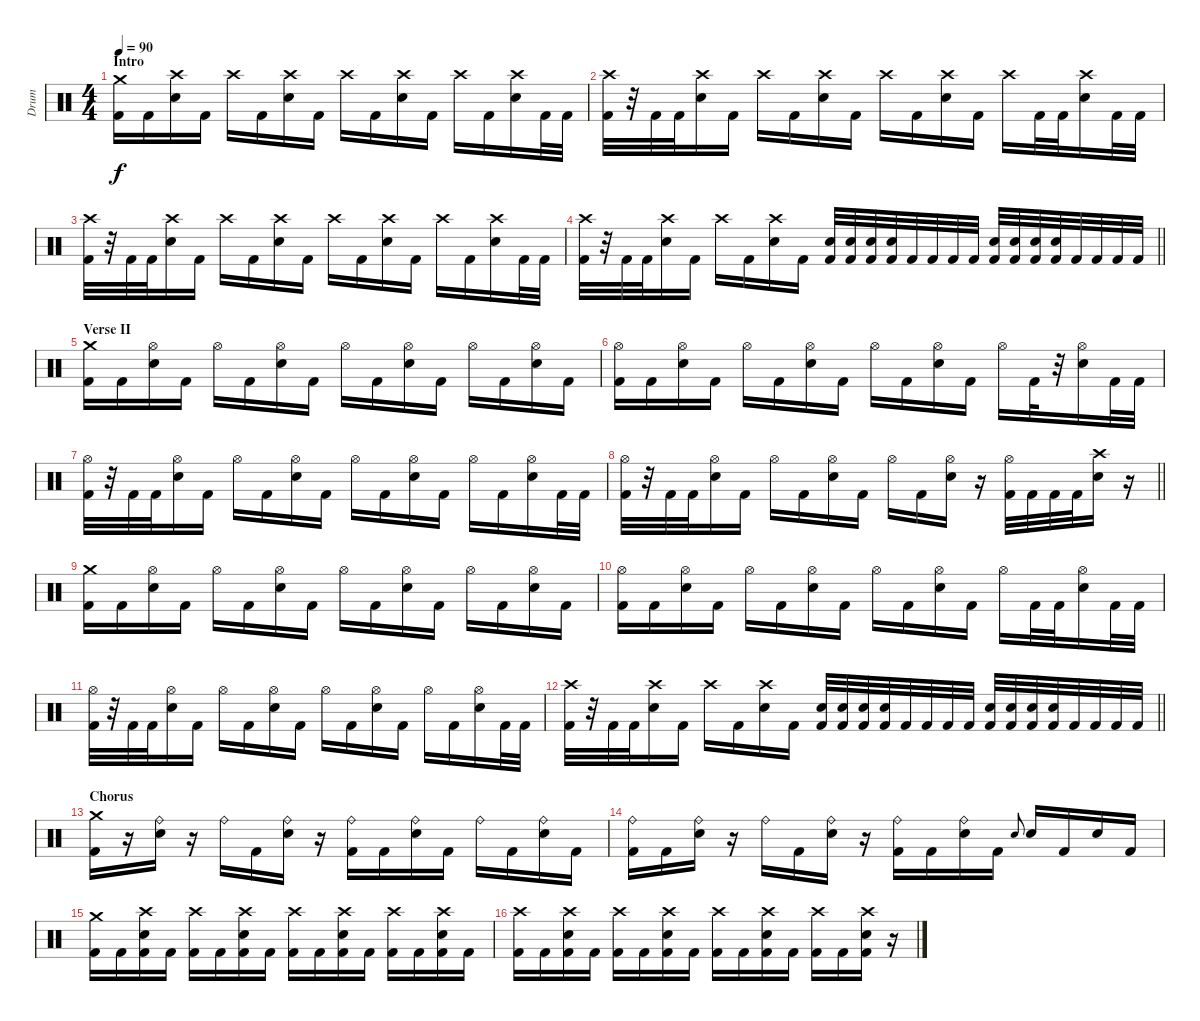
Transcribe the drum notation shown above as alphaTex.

\track ("Drum" "Drum") {instrument percussion}
\staff {score}
\articulation defaults
\ts (4 4)
\section ("" "Intro")
\tempo 90
\clef neutral
\ks c
("Crash medium (hit)" "Kick (hit) 2").16{dy f} "Kick (hit) 2".16 ("Crash high (hit)" "Electric Snare (hit)").16 "Kick (hit) 2".16 "Crash high (hit)".16 "Kick (hit) 2".16 ("Crash high (hit)" "Electric Snare (hit)").16 "Kick (hit) 2".16 "Crash high (hit)".16 "Kick (hit) 2".16 ("Crash high (hit)" "Electric Snare (hit)").16 "Kick (hit) 2".16 "Crash high (hit)".16 "Kick (hit) 2".16 ("Crash high (hit)" "Electric Snare (hit)").16 "Kick (hit) 2".32 "Kick (hit) 2".32 |
("Crash high (hit)" "Kick (hit) 2").32 r.32 "Kick (hit) 2".32 "Kick (hit) 2".32 ("Crash high (hit)" "Electric Snare (hit)").16 "Kick (hit) 2".16 "Crash high (hit)".16 "Kick (hit) 2".16 ("Crash high (hit)" "Electric Snare (hit)").16 "Kick (hit) 2".16 "Crash high (hit)".16 "Kick (hit) 2".16 ("Crash high (hit)" "Electric Snare (hit)").16 "Kick (hit) 2".16 "Crash high (hit)".16 "Kick (hit) 2".32 "Kick (hit) 2".32 ("Crash high (hit)" "Electric Snare (hit)").16 "Kick (hit) 2".32 "Kick (hit) 2".32 |
("Crash high (hit)" "Kick (hit) 2").32 r.32 "Kick (hit) 2".32 "Kick (hit) 2".32 ("Crash high (hit)" "Electric Snare (hit)").16 "Kick (hit) 2".16 "Crash high (hit)".16 "Kick (hit) 2".16 ("Crash high (hit)" "Electric Snare (hit)").16 "Kick (hit) 2".16 "Crash high (hit)".16 "Kick (hit) 2".16 ("Crash high (hit)" "Electric Snare (hit)").16 "Kick (hit) 2".16 "Crash high (hit)".16 "Kick (hit) 2".16 ("Crash high (hit)" "Electric Snare (hit)").16 "Kick (hit) 2".32 "Kick (hit) 2".32 |
\barLineRight lightlight
("Crash high (hit)" "Kick (hit) 2").32 r.32 "Kick (hit) 2".32 "Kick (hit) 2".32 ("Crash high (hit)" "Electric Snare (hit)").16 "Kick (hit) 2".16 "Crash high (hit)".16 "Kick (hit) 2".16 ("Crash high (hit)" "Electric Snare (hit)").16 "Kick (hit) 2".16 ("Electric Snare (hit)" "Kick (hit) 2").32 ("Electric Snare (hit)" "Kick (hit) 2").32 ("Electric Snare (hit)" "Kick (hit) 2").32 ("Electric Snare (hit)" "Kick (hit) 2").32 "Kick (hit) 2".32 "Kick (hit) 2".32 "Kick (hit) 2".32 "Kick (hit) 2".32 ("Electric Snare (hit)" "Kick (hit) 2").32 ("Electric Snare (hit)" "Kick (hit) 2").32 ("Electric Snare (hit)" "Kick (hit) 2").32 ("Electric Snare (hit)" "Kick (hit) 2").32 "Kick (hit) 2".32 "Kick (hit) 2".32 "Kick (hit) 2".32 "Kick (hit) 2".32 |
\section ("" "Verse II")
("Crash medium (hit)" "Kick (hit) 2").16 "Kick (hit) 2".16 ("Hi-Hat (open)" "Electric Snare (hit)").16 "Kick (hit) 2".16 "Hi-Hat (open)".16 "Kick (hit) 2".16 ("Hi-Hat (open)" "Electric Snare (hit)").16 "Kick (hit) 2".16 "Hi-Hat (open)".16 "Kick (hit) 2".16 ("Hi-Hat (open)" "Electric Snare (hit)").16 "Kick (hit) 2".16 "Hi-Hat (open)".16 "Kick (hit) 2".16 ("Hi-Hat (open)" "Electric Snare (hit)").16 "Kick (hit) 2".16 |
("Hi-Hat (open)" "Kick (hit) 2").16 "Kick (hit) 2".16 ("Hi-Hat (open)" "Electric Snare (hit)").16 "Kick (hit) 2".16 "Hi-Hat (open)".16 "Kick (hit) 2".16 ("Hi-Hat (open)" "Electric Snare (hit)").16 "Kick (hit) 2".16 "Hi-Hat (open)".16 "Kick (hit) 2".16 ("Hi-Hat (open)" "Electric Snare (hit)").16 "Kick (hit) 2".16 "Hi-Hat (open)".16 "Kick (hit) 2".32 r.32 ("Hi-Hat (open)" "Electric Snare (hit)").16 "Kick (hit) 2".32 "Kick (hit) 2".32 |
("Hi-Hat (open)" "Kick (hit) 2").32 r.32 "Kick (hit) 2".32 "Kick (hit) 2".32 ("Hi-Hat (open)" "Electric Snare (hit)").16 "Kick (hit) 2".16 "Hi-Hat (open)".16 "Kick (hit) 2".16 ("Hi-Hat (open)" "Electric Snare (hit)").16 "Kick (hit) 2".16 "Hi-Hat (open)".16 "Kick (hit) 2".16 ("Hi-Hat (open)" "Electric Snare (hit)").16 "Kick (hit) 2".16 "Hi-Hat (open)".16 "Kick (hit) 2".16 ("Hi-Hat (open)" "Electric Snare (hit)").16 "Kick (hit) 2".32 "Kick (hit) 2".32 |
\barLineRight lightlight
("Hi-Hat (open)" "Kick (hit) 2").32 r.32 "Kick (hit) 2".32 "Kick (hit) 2".32 ("Hi-Hat (open)" "Electric Snare (hit)").16 "Kick (hit) 2".16 "Hi-Hat (open)".16 "Kick (hit) 2".16 ("Hi-Hat (open)" "Electric Snare (hit)").16 "Kick (hit) 2".16 "Hi-Hat (open)".16 "Kick (hit) 2".16 ("Hi-Hat (open)" "Electric Snare (hit)").16 r.16 ("Hi-Hat (open)" "Kick (hit) 2").32 "Kick (hit) 2".32 "Kick (hit) 2".32 "Kick (hit) 2".32 ("Crash high (hit)" "Electric Snare (hit)").16 r.16 |
("Crash medium (hit)" "Kick (hit) 2").16 "Kick (hit) 2".16 ("Hi-Hat (open)" "Electric Snare (hit)").16 "Kick (hit) 2".16 "Hi-Hat (open)".16 "Kick (hit) 2".16 ("Hi-Hat (open)" "Electric Snare (hit)").16 "Kick (hit) 2".16 "Hi-Hat (open)".16 "Kick (hit) 2".16 ("Hi-Hat (open)" "Electric Snare (hit)").16 "Kick (hit) 2".16 "Hi-Hat (open)".16 "Kick (hit) 2".16 ("Hi-Hat (open)" "Electric Snare (hit)").16 "Kick (hit) 2".16 |
("Hi-Hat (open)" "Kick (hit) 2").16 "Kick (hit) 2".16 ("Hi-Hat (open)" "Electric Snare (hit)").16 "Kick (hit) 2".16 "Hi-Hat (open)".16 "Kick (hit) 2".16 ("Hi-Hat (open)" "Electric Snare (hit)").16 "Kick (hit) 2".16 "Hi-Hat (open)".16 "Kick (hit) 2".16 ("Hi-Hat (open)" "Electric Snare (hit)").16 "Kick (hit) 2".16 "Hi-Hat (open)".16 "Kick (hit) 2".32 "Kick (hit) 2".32 ("Hi-Hat (open)" "Electric Snare (hit)").16 "Kick (hit) 2".32 "Kick (hit) 2".32 |
("Hi-Hat (open)" "Kick (hit) 2").32 r.32 "Kick (hit) 2".32 "Kick (hit) 2".32 ("Hi-Hat (open)" "Electric Snare (hit)").16 "Kick (hit) 2".16 "Hi-Hat (open)".16 "Kick (hit) 2".16 ("Hi-Hat (open)" "Electric Snare (hit)").16 "Kick (hit) 2".16 "Hi-Hat (open)".16 "Kick (hit) 2".16 ("Hi-Hat (open)" "Electric Snare (hit)").16 "Kick (hit) 2".16 "Hi-Hat (open)".16 "Kick (hit) 2".16 ("Hi-Hat (open)" "Electric Snare (hit)").16 "Kick (hit) 2".32 "Kick (hit) 2".32 |
\barLineRight lightlight
("Crash high (hit)" "Kick (hit) 2").32 r.32 "Kick (hit) 2".32 "Kick (hit) 2".32 ("Crash high (hit)" "Electric Snare (hit)").16 "Kick (hit) 2".16 "Crash high (hit)".16 "Kick (hit) 2".16 ("Crash high (hit)" "Electric Snare (hit)").16 "Kick (hit) 2".16 ("Electric Snare (hit)" "Kick (hit) 2").32 ("Electric Snare (hit)" "Kick (hit) 2").32 ("Electric Snare (hit)" "Kick (hit) 2").32 ("Electric Snare (hit)" "Kick (hit) 2").32 "Kick (hit) 2".32 "Kick (hit) 2".32 "Kick (hit) 2".32 "Kick (hit) 2".32 ("Electric Snare (hit)" "Kick (hit) 2").32 ("Electric Snare (hit)" "Kick (hit) 2").32 ("Electric Snare (hit)" "Kick (hit) 2").32 ("Electric Snare (hit)" "Kick (hit) 2").32 "Kick (hit) 2".32 "Kick (hit) 2".32 "Kick (hit) 2".32 "Kick (hit) 2".32 |
\section ("" "Chorus")
("Crash medium (hit)" "Kick (hit) 2").16 r.16 ("Ride (bell)" "Electric Snare (hit)").16 r.16 "Ride (bell)".16 "Kick (hit) 2".16 ("Ride (bell)" "Electric Snare (hit)").16 r.16 ("Ride (bell)" "Kick (hit) 2").16 "Kick (hit) 2".16 ("Ride (bell)" "Electric Snare (hit)").16 "Kick (hit) 2".16 "Ride (bell)".16 "Kick (hit) 2".16 ("Ride (bell)" "Electric Snare (hit)").16 "Kick (hit) 2".16 |
("Ride (bell)" "Kick (hit) 2").16 "Kick (hit) 2".16 ("Ride (bell)" "Electric Snare (hit)").16 r.16 "Ride (bell)".16 "Kick (hit) 2".16 ("Ride (bell)" "Electric Snare (hit)").16 r.16 ("Ride (bell)" "Kick (hit) 2").16 "Kick (hit) 2".16 ("Ride (bell)" "Electric Snare (hit)").16 "Kick (hit) 2".16 "Electric Snare (hit)".8{gr onbeat} "Electric Snare (hit)".16 "Kick (hit) 2".16 "Electric Snare (hit)".16 "Kick (hit) 2".16 |
("Crash medium (hit)" "Kick (hit) 2").16 "Kick (hit) 2".16 ("Crash high (hit)" "Electric Snare (hit)" "Kick (hit) 2").16 "Kick (hit) 2".16 ("Crash high (hit)" "Kick (hit) 2").16 "Kick (hit) 2".16 ("Crash high (hit)" "Electric Snare (hit)" "Kick (hit) 2").16 "Kick (hit) 2".16 ("Crash high (hit)" "Kick (hit) 2").16 "Kick (hit) 2".16 ("Crash high (hit)" "Electric Snare (hit)" "Kick (hit) 2").16 "Kick (hit) 2".16 ("Crash high (hit)" "Kick (hit) 2").16 "Kick (hit) 2".16 ("Crash high (hit)" "Electric Snare (hit)" "Kick (hit) 2").16 "Kick (hit) 2".16 |
("Crash high (hit)" "Kick (hit) 2").16 "Kick (hit) 2".16 ("Crash high (hit)" "Electric Snare (hit)" "Kick (hit) 2").16 "Kick (hit) 2".16 ("Crash high (hit)" "Kick (hit) 2").16 "Kick (hit) 2".16 ("Crash high (hit)" "Electric Snare (hit)" "Kick (hit) 2").16 "Kick (hit) 2".16 ("Crash high (hit)" "Kick (hit) 2").16 "Kick (hit) 2".16 ("Crash high (hit)" "Electric Snare (hit)" "Kick (hit) 2").16 "Kick (hit) 2".16 ("Crash high (hit)" "Kick (hit) 2").16 "Kick (hit) 2".16 ("Crash high (hit)" "Electric Snare (hit)" "Kick (hit) 2").16 r.16
